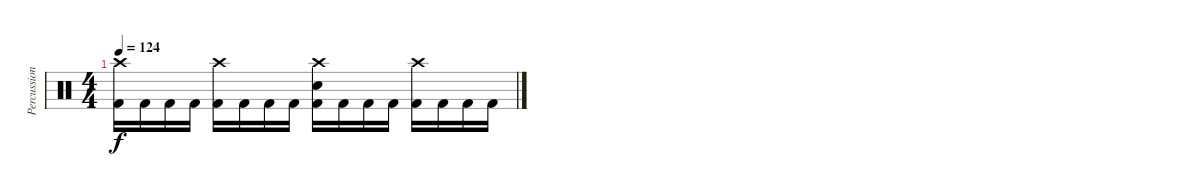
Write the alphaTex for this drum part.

\track ("Percussion" "Percussion") {instrument percussion}
\staff {score}
\articulation defaults
\ts (4 4)
\tempo 124
\clef neutral
\ks c
("Crash high (hit)" "Kick (hit) 2").16{dy f} "Kick (hit) 2".16 "Kick (hit) 2".16 "Kick (hit) 2".16 ("Crash high (hit)" "Kick (hit) 2").16 "Kick (hit) 2".16 "Kick (hit) 2".16 "Kick (hit) 2".16 ("Crash high (hit)" "Snare (hit) 2" "Kick (hit) 2").16 "Kick (hit) 2".16 "Kick (hit) 2".16 "Kick (hit) 2".16 ("Crash high (hit)" "Kick (hit) 2").16 "Kick (hit) 2".16 "Kick (hit) 2".16 "Kick (hit) 2".16
